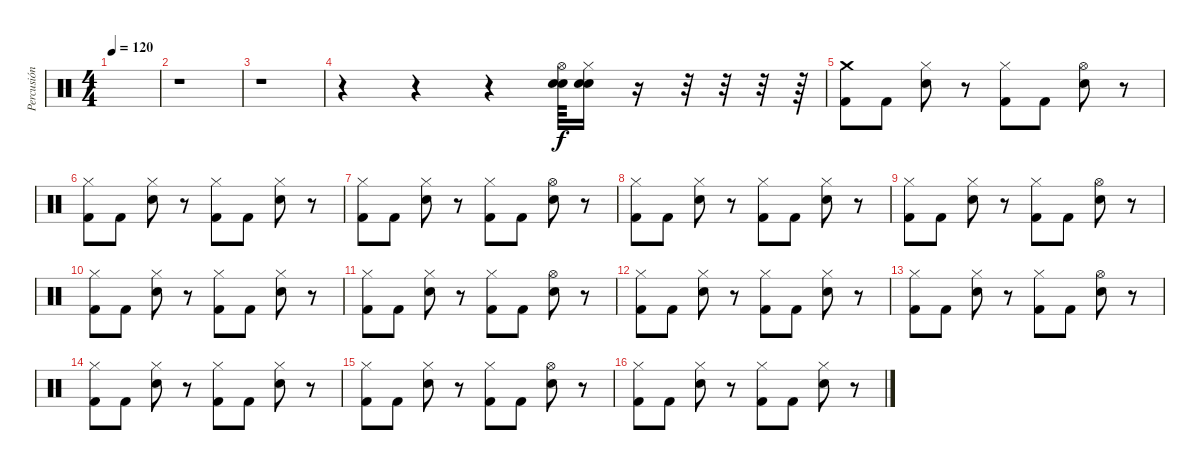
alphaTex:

\track ("Percusión" "Percusión") {instrument percussion}
\staff {score}
\articulation defaults
\ts (4 4)
\tempo 120
\clef neutral
\ks c
|
r.1 |
r.1 |
r.4 r.4 r.4 ("Electric Snare (hit)" "Snare (hit) 2" "Hi-Hat (open)").64 ("Electric Snare (hit)" "Snare (hit) 2" "Hi-Hat (closed)").16 r.16 r.32 r.32 r.32 r.64 |
("Crash medium (hit)" "Kick (hit) 2").8 "Kick (hit) 2".8 ("Electric Snare (hit)" "Hi-Hat (closed)").8 r.8 ("Hi-Hat (closed)" "Kick (hit) 2").8 "Kick (hit) 2".8 ("Electric Snare (hit)" "Hi-Hat (open)").8 r.8 |
("Hi-Hat (closed)" "Kick (hit) 2").8 "Kick (hit) 2".8 ("Electric Snare (hit)" "Hi-Hat (closed)").8 r.8 ("Hi-Hat (closed)" "Kick (hit) 2").8 "Kick (hit) 2".8 ("Electric Snare (hit)" "Hi-Hat (closed)").8 r.8 |
("Hi-Hat (closed)" "Kick (hit) 2").8 "Kick (hit) 2".8 ("Electric Snare (hit)" "Hi-Hat (closed)").8 r.8 ("Hi-Hat (closed)" "Kick (hit) 2").8 "Kick (hit) 2".8 ("Electric Snare (hit)" "Hi-Hat (open)").8 r.8 |
("Hi-Hat (closed)" "Kick (hit) 2").8 "Kick (hit) 2".8 ("Electric Snare (hit)" "Hi-Hat (closed)").8 r.8 ("Hi-Hat (closed)" "Kick (hit) 2").8 "Kick (hit) 2".8 ("Electric Snare (hit)" "Hi-Hat (closed)").8 r.8 |
("Hi-Hat (closed)" "Kick (hit) 2").8 "Kick (hit) 2".8 ("Electric Snare (hit)" "Hi-Hat (closed)").8 r.8 ("Hi-Hat (closed)" "Kick (hit) 2").8 "Kick (hit) 2".8 ("Electric Snare (hit)" "Hi-Hat (open)").8 r.8 |
("Hi-Hat (closed)" "Kick (hit) 2").8 "Kick (hit) 2".8 ("Electric Snare (hit)" "Hi-Hat (closed)").8 r.8 ("Hi-Hat (closed)" "Kick (hit) 2").8 "Kick (hit) 2".8 ("Electric Snare (hit)" "Hi-Hat (closed)").8 r.8 |
("Hi-Hat (closed)" "Kick (hit) 2").8 "Kick (hit) 2".8 ("Electric Snare (hit)" "Hi-Hat (closed)").8 r.8 ("Hi-Hat (closed)" "Kick (hit) 2").8 "Kick (hit) 2".8 ("Electric Snare (hit)" "Hi-Hat (open)").8 r.8 |
("Hi-Hat (closed)" "Kick (hit) 2").8 "Kick (hit) 2".8 ("Electric Snare (hit)" "Hi-Hat (closed)").8 r.8 ("Hi-Hat (closed)" "Kick (hit) 2").8 "Kick (hit) 2".8 ("Electric Snare (hit)" "Hi-Hat (closed)").8 r.8 |
("Hi-Hat (closed)" "Kick (hit) 2").8 "Kick (hit) 2".8 ("Electric Snare (hit)" "Hi-Hat (closed)").8 r.8 ("Hi-Hat (closed)" "Kick (hit) 2").8 "Kick (hit) 2".8 ("Electric Snare (hit)" "Hi-Hat (open)").8 r.8 |
("Hi-Hat (closed)" "Kick (hit) 2").8 "Kick (hit) 2".8 ("Electric Snare (hit)" "Hi-Hat (closed)").8 r.8 ("Hi-Hat (closed)" "Kick (hit) 2").8 "Kick (hit) 2".8 ("Electric Snare (hit)" "Hi-Hat (closed)").8 r.8 |
("Hi-Hat (closed)" "Kick (hit) 2").8 "Kick (hit) 2".8 ("Electric Snare (hit)" "Hi-Hat (closed)").8 r.8 ("Hi-Hat (closed)" "Kick (hit) 2").8 "Kick (hit) 2".8 ("Electric Snare (hit)" "Hi-Hat (open)").8 r.8 |
("Hi-Hat (closed)" "Kick (hit) 2").8 "Kick (hit) 2".8 ("Electric Snare (hit)" "Hi-Hat (closed)").8 r.8 ("Hi-Hat (closed)" "Kick (hit) 2").8 "Kick (hit) 2".8 ("Electric Snare (hit)" "Hi-Hat (closed)").8 r.8
